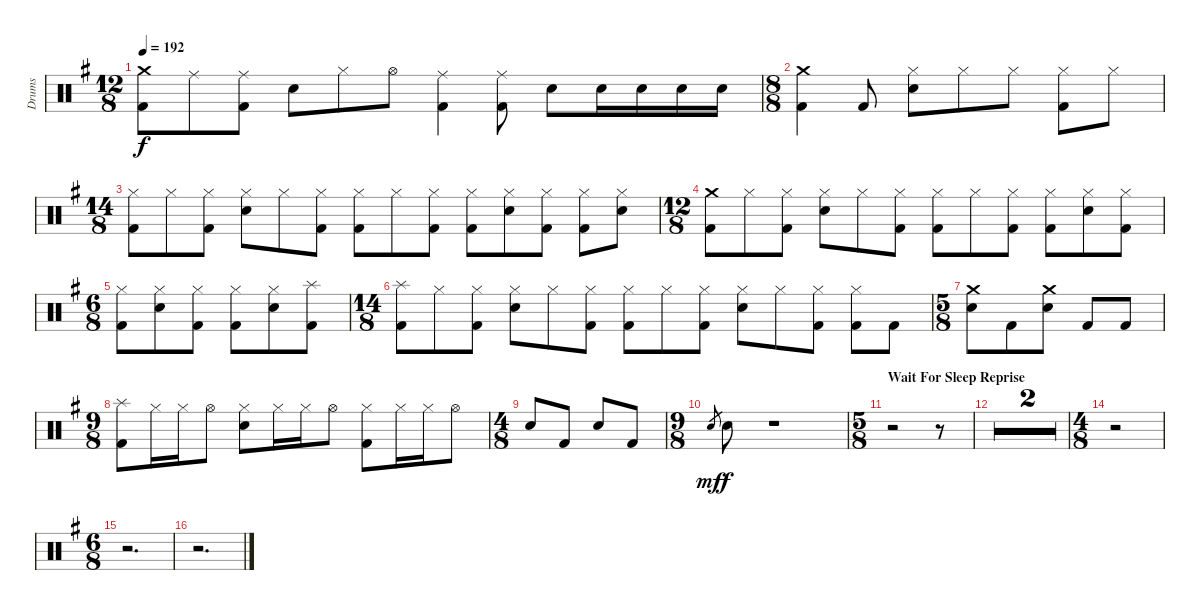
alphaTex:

\defaultSystemsLayout 4
\bracketExtendMode groupsimilarinstruments
\otherSystemsTrackNameOrientation horizontal
\track ("Drumkit" "Drums") {multiBarRest instrument percussion}
\staff {score}
\articulation defaults
\ts (12 8)
\tempo 192
\clef neutral
\ks g
("Crash medium (hit)"{acc forcenatural} "Kick (hit) 2"{acc forcenatural}).8{dy f} "Ride (middle)"{acc forcenatural}.8 ("Ride (middle)"{acc forcenatural} "Kick (hit) 2"{acc forcenatural}).8 "Snare (hit) 2"{acc forcenatural}.8 "Hi-Hat (closed)"{acc forcenatural}.8 "Hi-Hat (open)"{acc forcenatural}.8 ("Ride (middle)"{acc forcenatural} "Kick (hit) 2"{acc forcenatural}).4 ("Ride (middle)"{acc forcenatural} "Kick (hit) 2"{acc forcenatural}).8 "Snare (hit) 2"{acc forcenatural}.8 "Snare (hit) 2"{acc forcenatural}.16 "Snare (hit) 2"{acc forcenatural}.16 "Snare (hit) 2"{acc forcenatural}.16 "Snare (hit) 2"{acc forcenatural}.16 |
\ts (8 8)
\beaming (8 3 3 3 3)
("Crash medium (hit)"{acc forcenatural} "Kick (hit) 2"{acc forcenatural}).4 "Kick (hit) 2"{acc forcenatural}.8 ("Hi-Hat (closed)"{acc forcenatural} "Snare (hit) 2"{acc forcenatural}).8 "Hi-Hat (closed)"{acc forcenatural}.8 "Hi-Hat (closed)"{acc forcenatural}.8 ("Hi-Hat (closed)"{acc forcenatural} "Kick (hit) 2"{acc forcenatural}).8 "Hi-Hat (closed)"{acc forcenatural}.8 |
\ts (14 8)
\beaming (8 3 3 3 3)
("Hi-Hat (closed)"{acc forcenatural} "Kick (hit) 2"{acc forcenatural}).8 "Hi-Hat (closed)"{acc forcenatural}.8 ("Hi-Hat (closed)"{acc forcenatural} "Kick (hit) 2"{acc forcenatural}).8 ("Hi-Hat (closed)"{acc forcenatural} "Snare (hit) 2"{acc forcenatural}).8 "Hi-Hat (closed)"{acc forcenatural}.8 ("Hi-Hat (closed)"{acc forcenatural} "Kick (hit) 2"{acc forcenatural}).8 ("Hi-Hat (closed)"{acc forcenatural} "Kick (hit) 2"{acc forcenatural}).8 "Hi-Hat (closed)"{acc forcenatural}.8 ("Hi-Hat (closed)"{acc forcenatural} "Kick (hit) 2"{acc forcenatural}).8 ("Hi-Hat (closed)"{acc forcenatural} "Kick (hit) 2"{acc forcenatural}).8 ("Hi-Hat (closed)"{acc forcenatural} "Snare (hit) 2"{acc forcenatural}).8 ("Hi-Hat (closed)"{acc forcenatural} "Kick (hit) 2"{acc forcenatural}).8 ("Hi-Hat (closed)"{acc forcenatural} "Kick (hit) 2"{acc forcenatural}).8{beam merge} ("Hi-Hat (closed)"{acc forcenatural} "Snare (hit) 2"{acc forcenatural}).8 |
\ts (12 8)
\beaming (8 3 3 3 3)
("Crash medium (hit)"{acc forcenatural} "Kick (hit) 2"{acc forcenatural}).8 "Hi-Hat (closed)"{acc forcenatural}.8 ("Hi-Hat (closed)"{acc forcenatural} "Kick (hit) 2"{acc forcenatural}).8 ("Hi-Hat (closed)"{acc forcenatural} "Snare (hit) 2"{acc forcenatural}).8 "Hi-Hat (closed)"{acc forcenatural}.8 ("Hi-Hat (closed)"{acc forcenatural} "Kick (hit) 2"{acc forcenatural}).8 ("Hi-Hat (closed)"{acc forcenatural} "Kick (hit) 2"{acc forcenatural}).8 "Hi-Hat (closed)"{acc forcenatural}.8 ("Hi-Hat (closed)"{acc forcenatural} "Kick (hit) 2"{acc forcenatural}).8 ("Hi-Hat (closed)"{acc forcenatural} "Kick (hit) 2"{acc forcenatural}).8 ("Hi-Hat (closed)"{acc forcenatural} "Snare (hit) 2"{acc forcenatural}).8 ("Hi-Hat (closed)"{acc forcenatural} "Kick (hit) 2"{acc forcenatural}).8 |
\ts (6 8)
\beaming (8 3 3 3 3)
("Hi-Hat (closed)"{acc forcenatural} "Kick (hit) 2"{acc forcenatural}).8 ("Hi-Hat (closed)"{acc forcenatural} "Snare (hit) 2"{acc forcenatural}).8 ("Hi-Hat (closed)"{acc forcenatural} "Kick (hit) 2"{acc forcenatural}).8 ("Hi-Hat (closed)"{acc forcenatural} "Kick (hit) 2"{acc forcenatural}).8 ("Hi-Hat (closed)"{acc forcenatural} "Snare (hit) 2"{acc forcenatural}).8 ("Splash (hit)"{acc forcenatural} "Kick (hit) 2"{acc forcenatural}).8 |
\ts (14 8)
\beaming (8 3 3 3 3)
("Splash (hit)"{acc forcenatural} "Kick (hit) 2"{acc forcenatural}).8 "Hi-Hat (closed)"{acc forcenatural}.8 ("Hi-Hat (closed)"{acc forcenatural} "Kick (hit) 2"{acc forcenatural}).8 ("Hi-Hat (closed)"{acc forcenatural} "Snare (hit) 2"{acc forcenatural}).8 "Hi-Hat (closed)"{acc forcenatural}.8 ("Hi-Hat (closed)"{acc forcenatural} "Kick (hit) 2"{acc forcenatural}).8 ("Hi-Hat (closed)"{acc forcenatural} "Kick (hit) 2"{acc forcenatural}).8 "Hi-Hat (closed)"{acc forcenatural}.8 ("Hi-Hat (closed)"{acc forcenatural} "Kick (hit) 2"{acc forcenatural}).8 ("Hi-Hat (closed)"{acc forcenatural} "Snare (hit) 2"{acc forcenatural}).8 "Hi-Hat (closed)"{acc forcenatural}.8 ("Hi-Hat (closed)"{acc forcenatural} "Kick (hit) 2"{acc forcenatural}).8 ("Hi-Hat (closed)"{acc forcenatural} "Kick (hit) 2"{acc forcenatural}).8{beam merge} "Kick (hit) 2"{acc forcenatural}.8 |
\ts (5 8)
\beaming (8 3 3 3 3)
("Crash medium (hit)"{acc forcenatural} "Snare (hit) 2"{acc forcenatural}).8 "Kick (hit) 2"{acc forcenatural}.8 ("Crash medium (hit)"{acc forcenatural} "Snare (hit) 2"{acc forcenatural}).8 "Kick (hit) 2"{acc forcenatural}.8 "Kick (hit) 2"{acc forcenatural}.8 |
\ts (9 8)
\beaming (8 3 3 3 3)
("Kick (hit) 2"{acc forcenatural} "Splash (hit)"{acc forcenatural}).8 "Hi-Hat (closed)"{acc forcenatural}.16 "Hi-Hat (closed)"{acc forcenatural}.16 "Hi-Hat (open)"{acc forcenatural}.8 ("Hi-Hat (closed)"{acc forcenatural} "Snare (hit) 2"{acc forcenatural}).8 "Hi-Hat (closed)"{acc forcenatural}.16 "Hi-Hat (closed)"{acc forcenatural}.16 "Hi-Hat (open)"{acc forcenatural}.8 ("Hi-Hat (closed)"{acc forcenatural} "Kick (hit) 2"{acc forcenatural}).8 "Hi-Hat (closed)"{acc forcenatural}.16 "Hi-Hat (closed)"{acc forcenatural}.16 "Hi-Hat (open)"{acc forcenatural}.8 |
\ts (4 8)
\beaming (8 3 3 3 3)
"Snare (hit) 2"{acc forcenatural}.8{beam merge} "Kick (hit) 2"{acc forcenatural}.8{beam split} "Snare (hit) 2"{acc forcenatural}.8{beam merge} "Kick (hit) 2"{acc forcenatural}.8 |
\ts (9 8)
\beaming (8 3 3 3 3)
"Snare (hit) 2"{acc forcenatural}.8{gr dy mf} "Snare (hit) 2"{acc forcenatural}.8{dy f} r.1 |
\ts (5 8)
\beaming (8 3 3 3 3)
\section ("" "Wait For Sleep Reprise")
r.2 r.8 |
r.2 r.8 |
r.2 r.8 |
\ts (4 8)
\beaming (8 2 2)
r.2 |
\ts (6 8)
\beaming (8 3 3)
r.2{d} |
r.2{d}
